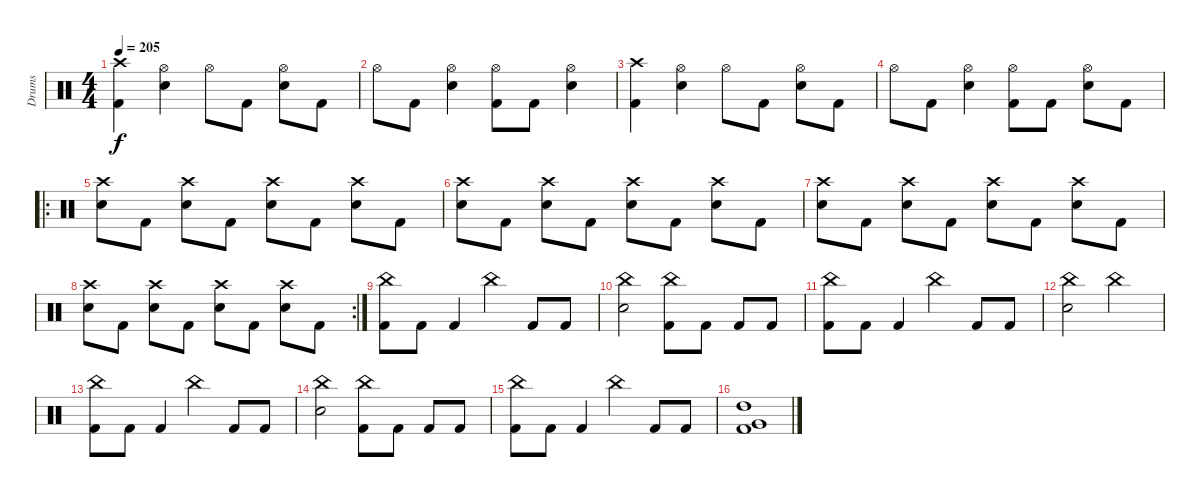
\track ("Drums" "Drums") {instrument percussion}
\staff {score}
\articulation defaults
\ts (4 4)
\tempo 205
\clef neutral
\ks c
("Crash high (hit)" "Kick (hit) 2").4{dy f} ("Hi-Hat (open)" "Electric Snare (hit)").4 "Hi-Hat (open)".8 "Kick (hit) 2".8 ("Hi-Hat (open)" "Electric Snare (hit)").8 "Kick (hit) 2".8 |
"Hi-Hat (open)".8 "Kick (hit) 2".8 ("Hi-Hat (open)" "Electric Snare (hit)").4 ("Hi-Hat (open)" "Kick (hit) 2").8 "Kick (hit) 2".8 ("Hi-Hat (open)" "Electric Snare (hit)").4 |
("Crash high (hit)" "Kick (hit) 2").4 ("Hi-Hat (open)" "Electric Snare (hit)").4 "Hi-Hat (open)".8 "Kick (hit) 2".8 ("Hi-Hat (open)" "Electric Snare (hit)").8 "Kick (hit) 2".8 |
"Hi-Hat (open)".8 "Kick (hit) 2".8 ("Hi-Hat (open)" "Electric Snare (hit)").4 ("Hi-Hat (open)" "Kick (hit) 2").8 "Kick (hit) 2".8 ("Hi-Hat (open)" "Electric Snare (hit)").8 "Kick (hit) 2".8 |
\ro
("Crash high (hit)" "Electric Snare (hit)").8 "Kick (hit) 2".8 ("Crash high (hit)" "Electric Snare (hit)").8 "Kick (hit) 2".8 ("Crash high (hit)" "Electric Snare (hit)").8 "Kick (hit) 2".8 ("Crash high (hit)" "Electric Snare (hit)").8 "Kick (hit) 2".8 |
("Crash high (hit)" "Electric Snare (hit)").8 "Kick (hit) 2".8 ("Crash high (hit)" "Electric Snare (hit)").8 "Kick (hit) 2".8 ("Crash high (hit)" "Electric Snare (hit)").8 "Kick (hit) 2".8 ("Crash high (hit)" "Electric Snare (hit)").8 "Kick (hit) 2".8 |
("Crash high (hit)" "Electric Snare (hit)").8 "Kick (hit) 2".8 ("Crash high (hit)" "Electric Snare (hit)").8 "Kick (hit) 2".8 ("Crash high (hit)" "Electric Snare (hit)").8 "Kick (hit) 2".8 ("Crash high (hit)" "Electric Snare (hit)").8 "Kick (hit) 2".8 |
\rc 2
("Crash high (hit)" "Electric Snare (hit)").8 "Kick (hit) 2".8 ("Crash high (hit)" "Electric Snare (hit)").8 "Kick (hit) 2".8 ("Crash high (hit)" "Electric Snare (hit)").8 "Kick (hit) 2".8 ("Crash high (hit)" "Electric Snare (hit)").8 "Kick (hit) 2".8 |
("China (hit)" "Kick (hit) 2").8 "Kick (hit) 2".8 "Kick (hit) 2".4 "China (hit)".4 "Kick (hit) 2".8 "Kick (hit) 2".8 |
("China (hit)" "Electric Snare (hit)").2 ("China (hit)" "Kick (hit) 2").8 "Kick (hit) 2".8 "Kick (hit) 2".8 "Kick (hit) 2".8 |
("China (hit)" "Kick (hit) 2").8 "Kick (hit) 2".8 "Kick (hit) 2".4 "China (hit)".4 "Kick (hit) 2".8 "Kick (hit) 2".8 |
("China (hit)" "Electric Snare (hit)").2 "China (hit)".2 |
("China (hit)" "Kick (hit) 2").8 "Kick (hit) 2".8 "Kick (hit) 2".4 "China (hit)".4 "Kick (hit) 2".8 "Kick (hit) 2".8 |
("China (hit)" "Electric Snare (hit)").2 ("China (hit)" "Kick (hit) 2").8 "Kick (hit) 2".8 "Kick (hit) 2".8 "Kick (hit) 2".8 |
("China (hit)" "Kick (hit) 2").8 "Kick (hit) 2".8 "Kick (hit) 2".4 "China (hit)".4 "Kick (hit) 2".8 "Kick (hit) 2".8 |
("Very Low Tom (hit)" "High Tom (hit)" "Kick (hit) 2").1
